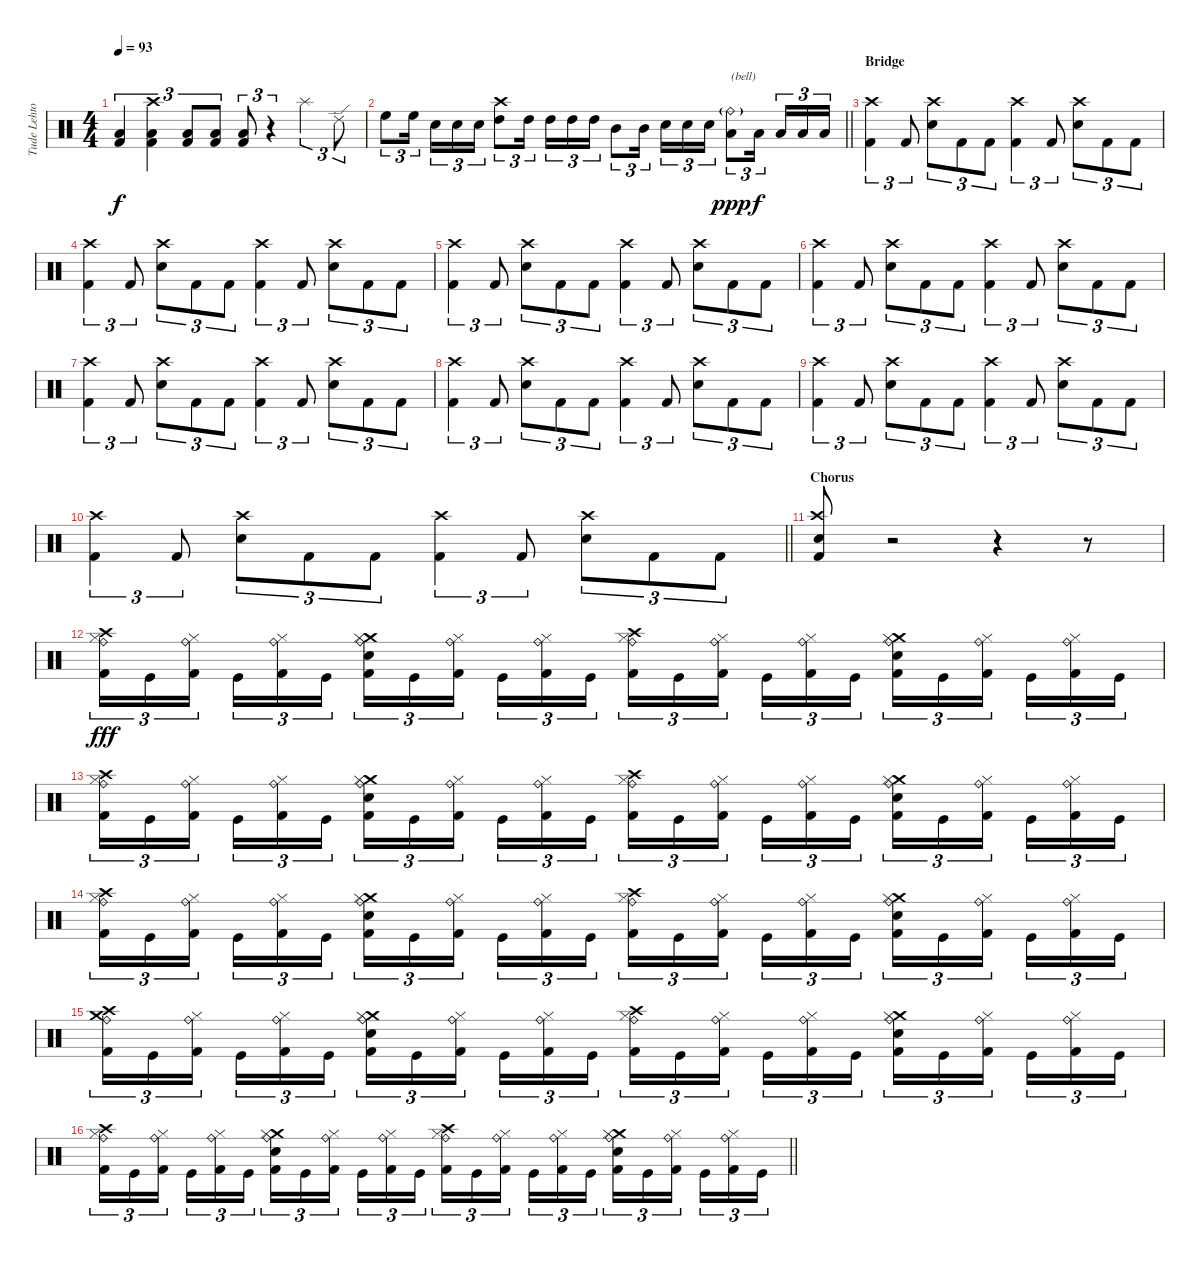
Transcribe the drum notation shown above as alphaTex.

\track ("Tude Lehtonen" "Tude Lehto") {instrument percussion}
\staff {score}
\articulation defaults
\ts (4 4)
\tempo 93
\clef neutral
\ks aminor
("Low Floor Tom (hit)" "Kick (hit) 2").4{tu (3 2) dy f} ("Crash high (hit)" "Low Floor Tom (hit)" "Kick (hit) 2").4{tu (3 2)} ("Low Floor Tom (hit)" "Kick (hit) 2").8{tu (3 2)} ("Low Floor Tom (hit)" "Kick (hit) 2").8{tu (3 2)} ("Low Floor Tom (hit)" "Kick (hit) 2").8{tu (3 2)} r.4{tu (3 2)} "Splash (hit)".4{tu (3 2)} "Ride (edge) 2".8{tu (3 2)} |
\barLineRight lightlight "High Floor Tom (hit)".8{tu (3 2)} "High Floor Tom (hit)".16{tu (3 2)} "Electric Snare (hit)".16{tu (3 2)} "Electric Snare (hit)".16{tu (3 2)} "Electric Snare (hit)".16{tu (3 2)}
("Crash high (hit)" "High Tom (hit)").8{tu (3 2)} "High Tom (hit)".16{tu (3 2)} "High Tom (hit)".16{tu (3 2)} "High Tom (hit)".16{tu (3 2)} "High Tom (hit)".16{tu (3 2)} "Mid Tom (hit)".8{tu (3 2)} "Mid Tom (hit)".16{tu (3 2)} "Electric Snare (hit)".16{tu (3 2)} "Electric Snare (hit)".16{tu (3 2)} "Electric Snare (hit)".16{tu (3 2)} ("Ride (bell)"{g} "Low Floor Tom (hit)").8{tu (3 2) txt "(bell)" dy ppp} "Low Floor Tom (hit)".16{tu (3 2) dy f} "Low Floor Tom (hit)".16{tu (3 2)} "Low Floor Tom (hit)".16{tu (3 2)} "Low Floor Tom (hit)".16{tu (3 2)} |
\section ("" "Bridge")
\ks c
("Crash high (hit)" "Kick (hit) 2").4{tu (3 2)} "Kick (hit) 2".8{tu (3 2)} ("Crash high (hit)" "Electric Snare (hit)").8{tu (3 2)} "Kick (hit) 2".8{tu (3 2)} "Kick (hit) 2".8{tu (3 2)} ("Crash high (hit)" "Kick (hit) 2").4{tu (3 2)} "Kick (hit) 2".8{tu (3 2)} ("Crash high (hit)" "Electric Snare (hit)").8{tu (3 2)} "Kick (hit) 2".8{tu (3 2)} "Kick (hit) 2".8{tu (3 2)} |
("Crash high (hit)" "Kick (hit) 2").4{tu (3 2)} "Kick (hit) 2".8{tu (3 2)} ("Crash high (hit)" "Electric Snare (hit)").8{tu (3 2)} "Kick (hit) 2".8{tu (3 2)} "Kick (hit) 2".8{tu (3 2)} ("Crash high (hit)" "Kick (hit) 2").4{tu (3 2)} "Kick (hit) 2".8{tu (3 2)} ("Crash high (hit)" "Electric Snare (hit)").8{tu (3 2)} "Kick (hit) 2".8{tu (3 2)} "Kick (hit) 2".8{tu (3 2)} |
("Crash high (hit)" "Kick (hit) 2").4{tu (3 2)} "Kick (hit) 2".8{tu (3 2)} ("Crash high (hit)" "Electric Snare (hit)").8{tu (3 2)} "Kick (hit) 2".8{tu (3 2)} "Kick (hit) 2".8{tu (3 2)} ("Crash high (hit)" "Kick (hit) 2").4{tu (3 2)} "Kick (hit) 2".8{tu (3 2)} ("Crash high (hit)" "Electric Snare (hit)").8{tu (3 2)} "Kick (hit) 2".8{tu (3 2)} "Kick (hit) 2".8{tu (3 2)} |
("Crash high (hit)" "Kick (hit) 2").4{tu (3 2)} "Kick (hit) 2".8{tu (3 2)} ("Crash high (hit)" "Electric Snare (hit)").8{tu (3 2)} "Kick (hit) 2".8{tu (3 2)} "Kick (hit) 2".8{tu (3 2)} ("Crash high (hit)" "Kick (hit) 2").4{tu (3 2)} "Kick (hit) 2".8{tu (3 2)} ("Crash high (hit)" "Electric Snare (hit)").8{tu (3 2)} "Kick (hit) 2".8{tu (3 2)} "Kick (hit) 2".8{tu (3 2)} |
("Crash high (hit)" "Kick (hit) 2").4{tu (3 2)} "Kick (hit) 2".8{tu (3 2)} ("Crash high (hit)" "Electric Snare (hit)").8{tu (3 2)} "Kick (hit) 2".8{tu (3 2)} "Kick (hit) 2".8{tu (3 2)} ("Crash high (hit)" "Kick (hit) 2").4{tu (3 2)} "Kick (hit) 2".8{tu (3 2)} ("Crash high (hit)" "Electric Snare (hit)").8{tu (3 2)} "Kick (hit) 2".8{tu (3 2)} "Kick (hit) 2".8{tu (3 2)} |
("Crash high (hit)" "Kick (hit) 2").4{tu (3 2)} "Kick (hit) 2".8{tu (3 2)} ("Crash high (hit)" "Electric Snare (hit)").8{tu (3 2)} "Kick (hit) 2".8{tu (3 2)} "Kick (hit) 2".8{tu (3 2)} ("Crash high (hit)" "Kick (hit) 2").4{tu (3 2)} "Kick (hit) 2".8{tu (3 2)} ("Crash high (hit)" "Electric Snare (hit)").8{tu (3 2)} "Kick (hit) 2".8{tu (3 2)} "Kick (hit) 2".8{tu (3 2)} |
("Crash high (hit)" "Kick (hit) 2").4{tu (3 2)} "Kick (hit) 2".8{tu (3 2)} ("Crash high (hit)" "Electric Snare (hit)").8{tu (3 2)} "Kick (hit) 2".8{tu (3 2)} "Kick (hit) 2".8{tu (3 2)} ("Crash high (hit)" "Kick (hit) 2").4{tu (3 2)} "Kick (hit) 2".8{tu (3 2)} ("Crash high (hit)" "Electric Snare (hit)").8{tu (3 2)} "Kick (hit) 2".8{tu (3 2)} "Kick (hit) 2".8{tu (3 2)} |
\barLineRight lightlight
("Crash high (hit)" "Kick (hit) 2").4{tu (3 2)} "Kick (hit) 2".8{tu (3 2)} ("Crash high (hit)" "Electric Snare (hit)").8{tu (3 2)} "Kick (hit) 2".8{tu (3 2)} "Kick (hit) 2".8{tu (3 2)} ("Crash high (hit)" "Kick (hit) 2").4{tu (3 2)} "Kick (hit) 2".8{tu (3 2)} ("Crash high (hit)" "Electric Snare (hit)").8{tu (3 2)} "Kick (hit) 2".8{tu (3 2)} "Kick (hit) 2".8{tu (3 2)} |
\section ("" "Chorus")
("Crash high (hit)" "Electric Snare (hit)" "Kick (hit) 2").8 r.2 r.4 r.8 |
("Crash high (hit)" "Hi-Hat (closed)" "Ride (bell)" "Kick (hit) 2").16{tu (3 2) dy fff} "Kick (hit)".16{tu (3 2)} ("Hi-Hat (closed)" "Ride (bell)" "Kick (hit) 2").16{tu (3 2)} "Kick (hit)".16{tu (3 2)} ("Hi-Hat (closed)" "Ride (bell)" "Kick (hit) 2").16{tu (3 2)} "Kick (hit)".16{tu (3 2)} ("Crash medium (hit)" "Hi-Hat (closed)" "Ride (bell)" "Electric Snare (hit)" "Kick (hit) 2").16{tu (3 2)} "Kick (hit)".16{tu (3 2)} ("Hi-Hat (closed)" "Ride (bell)" "Kick (hit) 2").16{tu (3 2)} "Kick (hit)".16{tu (3 2)} ("Hi-Hat (closed)" "Ride (bell)" "Kick (hit) 2").16{tu (3 2)} "Kick (hit)".16{tu (3 2)} ("Crash high (hit)" "Hi-Hat (closed)" "Ride (bell)" "Kick (hit) 2").16{tu (3 2)} "Kick (hit)".16{tu (3 2)} ("Hi-Hat (closed)" "Ride (bell)" "Kick (hit) 2").16{tu (3 2)} "Kick (hit)".16{tu (3 2)} ("Hi-Hat (closed)" "Ride (bell)" "Kick (hit) 2").16{tu (3 2)} "Kick (hit)".16{tu (3 2)} ("Crash medium (hit)" "Hi-Hat (closed)" "Ride (bell)" "Electric Snare (hit)" "Kick (hit) 2").16{tu (3 2)} "Kick (hit)".16{tu (3 2)} ("Hi-Hat (closed)" "Ride (bell)" "Kick (hit) 2").16{tu (3 2)} "Kick (hit)".16{tu (3 2)} ("Hi-Hat (closed)" "Ride (bell)" "Kick (hit) 2").16{tu (3 2)} "Kick (hit)".16{tu (3 2)} |
("Crash high (hit)" "Hi-Hat (closed)" "Ride (bell)" "Kick (hit) 2").16{tu (3 2)} "Kick (hit)".16{tu (3 2)} ("Hi-Hat (closed)" "Ride (bell)" "Kick (hit) 2").16{tu (3 2)} "Kick (hit)".16{tu (3 2)} ("Hi-Hat (closed)" "Ride (bell)" "Kick (hit) 2").16{tu (3 2)} "Kick (hit)".16{tu (3 2)} ("Crash medium (hit)" "Hi-Hat (closed)" "Ride (bell)" "Electric Snare (hit)" "Kick (hit) 2").16{tu (3 2)} "Kick (hit)".16{tu (3 2)} ("Hi-Hat (closed)" "Ride (bell)" "Kick (hit) 2").16{tu (3 2)} "Kick (hit)".16{tu (3 2)} ("Hi-Hat (closed)" "Ride (bell)" "Kick (hit) 2").16{tu (3 2)} "Kick (hit)".16{tu (3 2)} ("Crash high (hit)" "Hi-Hat (closed)" "Ride (bell)" "Kick (hit) 2").16{tu (3 2)} "Kick (hit)".16{tu (3 2)} ("Hi-Hat (closed)" "Ride (bell)" "Kick (hit) 2").16{tu (3 2)} "Kick (hit)".16{tu (3 2)} ("Hi-Hat (closed)" "Ride (bell)" "Kick (hit) 2").16{tu (3 2)} "Kick (hit)".16{tu (3 2)} ("Crash medium (hit)" "Hi-Hat (closed)" "Ride (bell)" "Electric Snare (hit)" "Kick (hit) 2").16{tu (3 2)} "Kick (hit)".16{tu (3 2)} ("Hi-Hat (closed)" "Ride (bell)" "Kick (hit) 2").16{tu (3 2)} "Kick (hit)".16{tu (3 2)} ("Hi-Hat (closed)" "Ride (bell)" "Kick (hit) 2").16{tu (3 2)} "Kick (hit)".16{tu (3 2)} |
("Crash high (hit)" "Hi-Hat (closed)" "Ride (bell)" "Kick (hit) 2").16{tu (3 2)} "Kick (hit)".16{tu (3 2)} ("Hi-Hat (closed)" "Ride (bell)" "Kick (hit) 2").16{tu (3 2)} "Kick (hit)".16{tu (3 2)} ("Hi-Hat (closed)" "Ride (bell)" "Kick (hit) 2").16{tu (3 2)} "Kick (hit)".16{tu (3 2)} ("Crash medium (hit)" "Hi-Hat (closed)" "Ride (bell)" "Electric Snare (hit)" "Kick (hit) 2").16{tu (3 2)} "Kick (hit)".16{tu (3 2)} ("Hi-Hat (closed)" "Ride (bell)" "Kick (hit) 2").16{tu (3 2)} "Kick (hit)".16{tu (3 2)} ("Hi-Hat (closed)" "Ride (bell)" "Kick (hit) 2").16{tu (3 2)} "Kick (hit)".16{tu (3 2)} ("Crash high (hit)" "Hi-Hat (closed)" "Ride (bell)" "Kick (hit) 2").16{tu (3 2)} "Kick (hit)".16{tu (3 2)} ("Hi-Hat (closed)" "Ride (bell)" "Kick (hit) 2").16{tu (3 2)} "Kick (hit)".16{tu (3 2)} ("Hi-Hat (closed)" "Ride (bell)" "Kick (hit) 2").16{tu (3 2)} "Kick (hit)".16{tu (3 2)} ("Crash medium (hit)" "Hi-Hat (closed)" "Ride (bell)" "Electric Snare (hit)" "Kick (hit) 2").16{tu (3 2)} "Kick (hit)".16{tu (3 2)} ("Hi-Hat (closed)" "Ride (bell)" "Kick (hit) 2").16{tu (3 2)} "Kick (hit)".16{tu (3 2)} ("Hi-Hat (closed)" "Ride (bell)" "Kick (hit) 2").16{tu (3 2)} "Kick (hit)".16{tu (3 2)} |
("Crash high (hit)" "Crash medium (hit)" "Ride (bell)" "Kick (hit) 2").16{tu (3 2)} "Kick (hit)".16{tu (3 2)} ("Hi-Hat (closed)" "Ride (bell)" "Kick (hit) 2").16{tu (3 2)} "Kick (hit)".16{tu (3 2)} ("Hi-Hat (closed)" "Ride (bell)" "Kick (hit) 2").16{tu (3 2)} "Kick (hit)".16{tu (3 2)} ("Crash medium (hit)" "Hi-Hat (closed)" "Ride (bell)" "Electric Snare (hit)" "Kick (hit) 2").16{tu (3 2)} "Kick (hit)".16{tu (3 2)} ("Hi-Hat (closed)" "Ride (bell)" "Kick (hit) 2").16{tu (3 2)} "Kick (hit)".16{tu (3 2)} ("Hi-Hat (closed)" "Ride (bell)" "Kick (hit) 2").16{tu (3 2)} "Kick (hit)".16{tu (3 2)} ("Crash high (hit)" "Hi-Hat (closed)" "Ride (bell)" "Kick (hit) 2").16{tu (3 2)} "Kick (hit)".16{tu (3 2)} ("Hi-Hat (closed)" "Ride (bell)" "Kick (hit) 2").16{tu (3 2)} "Kick (hit)".16{tu (3 2)} ("Hi-Hat (closed)" "Ride (bell)" "Kick (hit) 2").16{tu (3 2)} "Kick (hit)".16{tu (3 2)} ("Crash medium (hit)" "Hi-Hat (closed)" "Ride (bell)" "Electric Snare (hit)" "Kick (hit) 2").16{tu (3 2)} "Kick (hit)".16{tu (3 2)} ("Hi-Hat (closed)" "Ride (bell)" "Kick (hit) 2").16{tu (3 2)} "Kick (hit)".16{tu (3 2)} ("Hi-Hat (closed)" "Ride (bell)" "Kick (hit) 2").16{tu (3 2)} "Kick (hit)".16{tu (3 2)} |
\barLineRight lightlight
("Crash high (hit)" "Hi-Hat (closed)" "Ride (bell)" "Kick (hit) 2").16{tu (3 2)} "Kick (hit)".16{tu (3 2)} ("Hi-Hat (closed)" "Ride (bell)" "Kick (hit) 2").16{tu (3 2)} "Kick (hit)".16{tu (3 2)} ("Hi-Hat (closed)" "Ride (bell)" "Kick (hit) 2").16{tu (3 2)} "Kick (hit)".16{tu (3 2)} ("Crash medium (hit)" "Hi-Hat (closed)" "Ride (bell)" "Electric Snare (hit)" "Kick (hit) 2").16{tu (3 2)} "Kick (hit)".16{tu (3 2)} ("Hi-Hat (closed)" "Ride (bell)" "Kick (hit) 2").16{tu (3 2)} "Kick (hit)".16{tu (3 2)} ("Hi-Hat (closed)" "Ride (bell)" "Kick (hit) 2").16{tu (3 2)} "Kick (hit)".16{tu (3 2)} ("Crash high (hit)" "Hi-Hat (closed)" "Ride (bell)" "Kick (hit) 2").16{tu (3 2)} "Kick (hit)".16{tu (3 2)} ("Hi-Hat (closed)" "Ride (bell)" "Kick (hit) 2").16{tu (3 2)} "Kick (hit)".16{tu (3 2)} ("Hi-Hat (closed)" "Ride (bell)" "Kick (hit) 2").16{tu (3 2)} "Kick (hit)".16{tu (3 2)} ("Crash medium (hit)" "Hi-Hat (closed)" "Ride (bell)" "Electric Snare (hit)" "Kick (hit) 2").16{tu (3 2)} "Kick (hit)".16{tu (3 2)} ("Hi-Hat (closed)" "Ride (bell)" "Kick (hit) 2").16{tu (3 2)} "Kick (hit)".16{tu (3 2)} ("Hi-Hat (closed)" "Ride (bell)" "Kick (hit) 2").16{tu (3 2)} "Kick (hit)".16{tu (3 2)}
